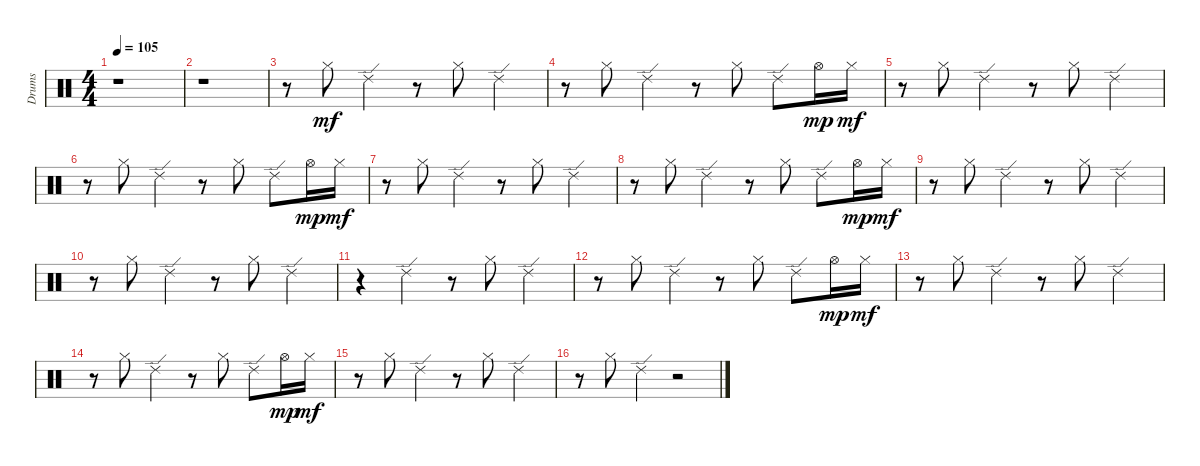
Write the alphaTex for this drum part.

\track ("Drums" "Drums") {instrument percussion}
\staff {score}
\articulation defaults
\ts (4 4)
\tempo 105
\clef neutral
\ks c
r.1{dy mf} |
r.1 |
r.8 "Hi-Hat (closed)".8 "Ride (edge) 2".4 r.8 "Hi-Hat (closed)".8 "Ride (edge) 2".4 |
r.8 "Hi-Hat (closed)".8 "Ride (edge) 2".4 r.8 "Hi-Hat (closed)".8 "Ride (edge) 2".8 "Hi-Hat (open)".16{dy mp} "Hi-Hat (closed)".16{dy mf} |
r.8 "Hi-Hat (closed)".8 "Ride (edge) 2".4 r.8 "Hi-Hat (closed)".8 "Ride (edge) 2".4 |
r.8 "Hi-Hat (closed)".8 "Ride (edge) 2".4 r.8 "Hi-Hat (closed)".8 "Ride (edge) 2".8 "Hi-Hat (open)".16{dy mp} "Hi-Hat (closed)".16{dy mf} |
r.8 "Hi-Hat (closed)".8 "Ride (edge) 2".4 r.8 "Hi-Hat (closed)".8 "Ride (edge) 2".4 |
r.8 "Hi-Hat (closed)".8 "Ride (edge) 2".4 r.8 "Hi-Hat (closed)".8 "Ride (edge) 2".8 "Hi-Hat (open)".16{dy mp} "Hi-Hat (closed)".16{dy mf} |
r.8 "Hi-Hat (closed)".8 "Ride (edge) 2".4 r.8 "Hi-Hat (closed)".8 "Ride (edge) 2".4 |
r.8 "Hi-Hat (closed)".8 "Ride (edge) 2".4 r.8 "Hi-Hat (closed)".8 "Ride (edge) 2".4 |
r.4 "Ride (edge) 2".4 r.8 "Hi-Hat (closed)".8 "Ride (edge) 2".4 |
r.8 "Hi-Hat (closed)".8 "Ride (edge) 2".4 r.8 "Hi-Hat (closed)".8 "Ride (edge) 2".8 "Hi-Hat (open)".16{dy mp} "Hi-Hat (closed)".16{dy mf} |
r.8 "Hi-Hat (closed)".8 "Ride (edge) 2".4 r.8 "Hi-Hat (closed)".8 "Ride (edge) 2".4 |
r.8 "Hi-Hat (closed)".8 "Ride (edge) 2".4 r.8 "Hi-Hat (closed)".8 "Ride (edge) 2".8 "Hi-Hat (open)".16{dy mp} "Hi-Hat (closed)".16{dy mf} |
r.8 "Hi-Hat (closed)".8 "Ride (edge) 2".4 r.8 "Hi-Hat (closed)".8 "Ride (edge) 2".4 |
r.8 "Hi-Hat (closed)".8 "Ride (edge) 2".4 r.2
